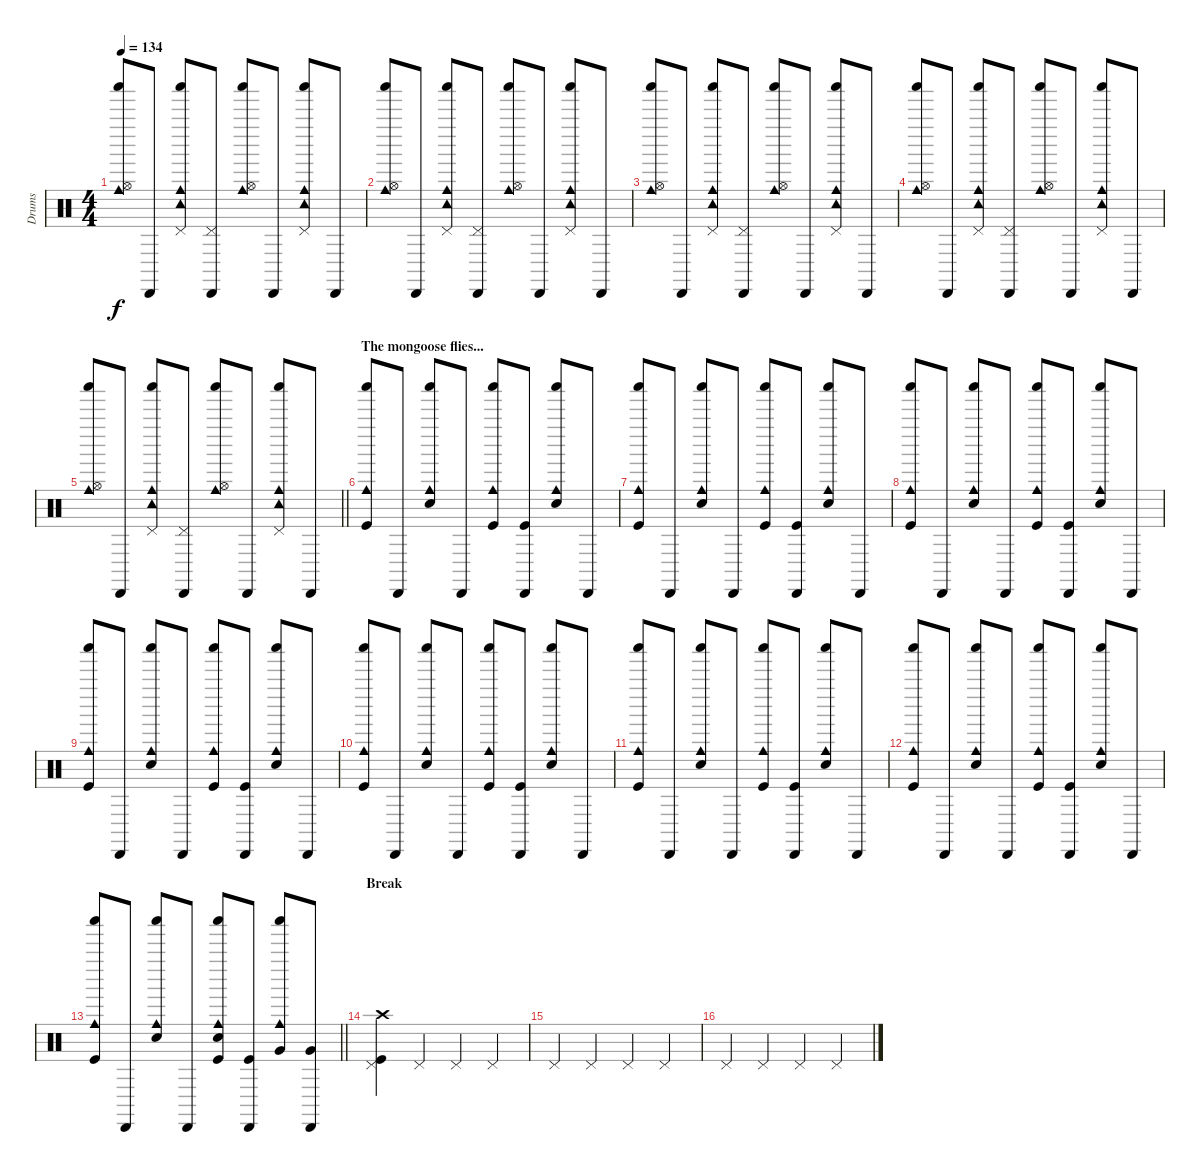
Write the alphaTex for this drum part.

\track ("Drums" "Drums") {instrument percussion}
\staff {score}
\articulation defaults
\ts (4 4)
\tempo 134
\clef neutral
\ks c
("Cowbell medium (hit)" "Shaker (hit)" "Hi-Hat (open)").8{dy f} "Cabasa (hit)".8 ("Cowbell medium (hit)" "Shaker (hit)" "Tambourine (hit)" "Pedal Hi-Hat (hit)").8 ("Cabasa (hit)" "Pedal Hi-Hat (hit)").8 ("Cowbell medium (hit)" "Shaker (hit)" "Hi-Hat (open)").8 "Cabasa (hit)".8 ("Cowbell medium (hit)" "Shaker (hit)" "Tambourine (hit)" "Pedal Hi-Hat (hit)").8 "Cabasa (hit)".8 |
("Cowbell medium (hit)" "Shaker (hit)" "Hi-Hat (open)").8 "Cabasa (hit)".8 ("Cowbell medium (hit)" "Shaker (hit)" "Tambourine (hit)" "Pedal Hi-Hat (hit)").8 ("Cabasa (hit)" "Pedal Hi-Hat (hit)").8 ("Cowbell medium (hit)" "Shaker (hit)" "Hi-Hat (open)").8 "Cabasa (hit)".8 ("Cowbell medium (hit)" "Shaker (hit)" "Tambourine (hit)" "Pedal Hi-Hat (hit)").8 "Cabasa (hit)".8 |
("Cowbell medium (hit)" "Shaker (hit)" "Hi-Hat (open)").8 "Cabasa (hit)".8 ("Cowbell medium (hit)" "Shaker (hit)" "Tambourine (hit)" "Pedal Hi-Hat (hit)").8 ("Cabasa (hit)" "Pedal Hi-Hat (hit)").8 ("Cowbell medium (hit)" "Shaker (hit)" "Hi-Hat (open)").8 "Cabasa (hit)".8 ("Cowbell medium (hit)" "Shaker (hit)" "Tambourine (hit)" "Pedal Hi-Hat (hit)").8 "Cabasa (hit)".8 |
("Cowbell medium (hit)" "Shaker (hit)" "Hi-Hat (open)").8 "Cabasa (hit)".8 ("Cowbell medium (hit)" "Shaker (hit)" "Tambourine (hit)" "Pedal Hi-Hat (hit)").8 ("Cabasa (hit)" "Pedal Hi-Hat (hit)").8 ("Cowbell medium (hit)" "Shaker (hit)" "Hi-Hat (open)").8 "Cabasa (hit)".8 ("Cowbell medium (hit)" "Shaker (hit)" "Tambourine (hit)" "Pedal Hi-Hat (hit)").8 "Cabasa (hit)".8 |
\barLineRight lightlight
("Cowbell medium (hit)" "Shaker (hit)" "Hi-Hat (open)").8 "Cabasa (hit)".8 ("Cowbell medium (hit)" "Shaker (hit)" "Tambourine (hit)" "Pedal Hi-Hat (hit)").8 ("Cabasa (hit)" "Pedal Hi-Hat (hit)").8 ("Cowbell medium (hit)" "Shaker (hit)" "Hi-Hat (open)").8 "Cabasa (hit)".8 ("Cowbell medium (hit)" "Shaker (hit)" "Tambourine (hit)" "Pedal Hi-Hat (hit)").8 "Cabasa (hit)".8 |
\section ("" "The mongoose flies...")
("Cowbell medium (hit)" "Shaker (hit)" "Kick (hit)").8 "Cabasa (hit)".8 ("Cowbell medium (hit)" "Shaker (hit)" "Snare (hit) 2").8 "Cabasa (hit)".8 ("Cowbell medium (hit)" "Shaker (hit)" "Kick (hit)").8 ("Cabasa (hit)" "Kick (hit)").8 ("Cowbell medium (hit)" "Shaker (hit)" "Snare (hit) 2").8 "Cabasa (hit)".8 |
("Cowbell medium (hit)" "Shaker (hit)" "Kick (hit)").8 "Cabasa (hit)".8 ("Cowbell medium (hit)" "Shaker (hit)" "Snare (hit) 2").8 "Cabasa (hit)".8 ("Cowbell medium (hit)" "Shaker (hit)" "Kick (hit)").8 ("Cabasa (hit)" "Kick (hit)").8 ("Cowbell medium (hit)" "Shaker (hit)" "Snare (hit) 2").8 "Cabasa (hit)".8 |
("Cowbell medium (hit)" "Shaker (hit)" "Kick (hit)").8 "Cabasa (hit)".8 ("Cowbell medium (hit)" "Shaker (hit)" "Snare (hit) 2").8 "Cabasa (hit)".8 ("Cowbell medium (hit)" "Shaker (hit)" "Kick (hit)").8 ("Cabasa (hit)" "Kick (hit)").8 ("Cowbell medium (hit)" "Shaker (hit)" "Snare (hit) 2").8 "Cabasa (hit)".8 |
("Cowbell medium (hit)" "Shaker (hit)" "Kick (hit)").8 "Cabasa (hit)".8 ("Cowbell medium (hit)" "Shaker (hit)" "Snare (hit) 2").8 "Cabasa (hit)".8 ("Cowbell medium (hit)" "Shaker (hit)" "Kick (hit)").8 ("Cabasa (hit)" "Kick (hit)").8 ("Cowbell medium (hit)" "Shaker (hit)" "Snare (hit) 2").8 "Cabasa (hit)".8 |
("Cowbell medium (hit)" "Shaker (hit)" "Kick (hit)").8 "Cabasa (hit)".8 ("Cowbell medium (hit)" "Shaker (hit)" "Snare (hit) 2").8 "Cabasa (hit)".8 ("Cowbell medium (hit)" "Shaker (hit)" "Kick (hit)").8 ("Cabasa (hit)" "Kick (hit)").8 ("Cowbell medium (hit)" "Shaker (hit)" "Snare (hit) 2").8 "Cabasa (hit)".8 |
("Cowbell medium (hit)" "Shaker (hit)" "Kick (hit)").8 "Cabasa (hit)".8 ("Cowbell medium (hit)" "Shaker (hit)" "Snare (hit) 2").8 "Cabasa (hit)".8 ("Cowbell medium (hit)" "Shaker (hit)" "Kick (hit)").8 ("Cabasa (hit)" "Kick (hit)").8 ("Cowbell medium (hit)" "Shaker (hit)" "Snare (hit) 2").8 "Cabasa (hit)".8 |
("Cowbell medium (hit)" "Shaker (hit)" "Kick (hit)").8 "Cabasa (hit)".8 ("Cowbell medium (hit)" "Shaker (hit)" "Snare (hit) 2").8 "Cabasa (hit)".8 ("Cowbell medium (hit)" "Shaker (hit)" "Kick (hit)").8 ("Cabasa (hit)" "Kick (hit)").8 ("Cowbell medium (hit)" "Shaker (hit)" "Snare (hit) 2").8 "Cabasa (hit)".8 |
\barLineRight lightlight
("Cowbell medium (hit)" "Shaker (hit)" "Kick (hit)").8 "Cabasa (hit)".8 ("Cowbell medium (hit)" "Shaker (hit)" "Snare (hit) 2").8 "Cabasa (hit)".8 ("Cowbell medium (hit)" "Shaker (hit)" "Snare (hit) 2" "Kick (hit)").8 ("Cabasa (hit)" "Kick (hit)").8 ("Cowbell medium (hit)" "Shaker (hit)" "Very Low Tom (hit)").8 ("Cabasa (hit)" "Very Low Tom (hit)").8 |
\section ("" "Break")
("Crash high (hit)" "Pedal Hi-Hat (hit)" "Kick (hit)").4 "Pedal Hi-Hat (hit)".4 "Pedal Hi-Hat (hit)".4 "Pedal Hi-Hat (hit)".4 |
"Pedal Hi-Hat (hit)".4 "Pedal Hi-Hat (hit)".4 "Pedal Hi-Hat (hit)".4 "Pedal Hi-Hat (hit)".4 |
"Pedal Hi-Hat (hit)".4 "Pedal Hi-Hat (hit)".4 "Pedal Hi-Hat (hit)".4 "Pedal Hi-Hat (hit)".4
